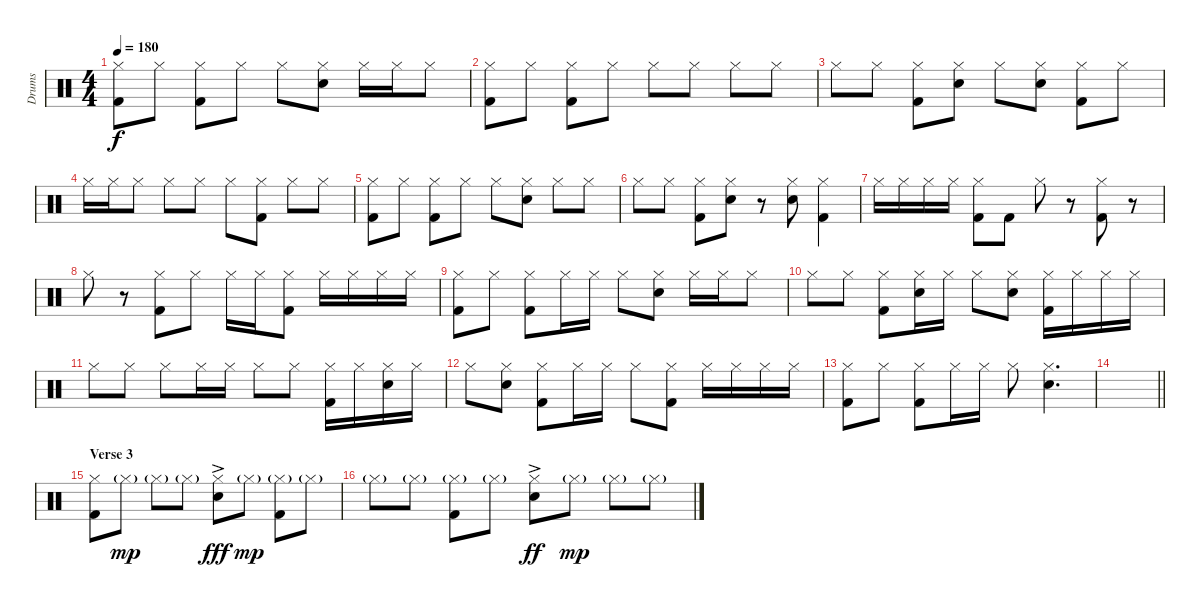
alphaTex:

\track ("Drums" "Drums") {instrument percussion}
\staff {score}
\articulation defaults
\ts (4 4)
\tempo 180
\clef neutral
\ks c
("Hi-Hat (closed)" "Kick (hit) 2").8{dy f} "Hi-Hat (closed)".8 ("Hi-Hat (closed)" "Kick (hit) 2").8 "Hi-Hat (closed)".8 "Hi-Hat (closed)".8 ("Hi-Hat (closed)" "Snare (hit) 2").8 "Hi-Hat (closed)".16 "Hi-Hat (closed)".16 "Hi-Hat (closed)".8 |
("Hi-Hat (closed)" "Kick (hit) 2").8 "Hi-Hat (closed)".8 ("Hi-Hat (closed)" "Kick (hit) 2").8 "Hi-Hat (closed)".8 "Hi-Hat (closed)".8 "Hi-Hat (closed)".8 "Hi-Hat (closed)".8 "Hi-Hat (closed)".8 |
"Hi-Hat (closed)".8 "Hi-Hat (closed)".8 ("Hi-Hat (closed)" "Kick (hit) 2").8 ("Hi-Hat (closed)" "Snare (hit) 2").8 "Hi-Hat (closed)".8 ("Hi-Hat (closed)" "Snare (hit) 2").8 ("Hi-Hat (closed)" "Kick (hit) 2").8 "Hi-Hat (closed)".8 |
"Hi-Hat (closed)".16 "Hi-Hat (closed)".16 "Hi-Hat (closed)".8 "Hi-Hat (closed)".8 "Hi-Hat (closed)".8 "Hi-Hat (closed)".8 ("Hi-Hat (closed)" "Kick (hit) 2").8 "Hi-Hat (closed)".8 "Hi-Hat (closed)".8 |
("Hi-Hat (closed)" "Kick (hit) 2").8 "Hi-Hat (closed)".8 ("Hi-Hat (closed)" "Kick (hit) 2").8 "Hi-Hat (closed)".8 "Hi-Hat (closed)".8 ("Hi-Hat (closed)" "Snare (hit) 2").8 "Hi-Hat (closed)".8 "Hi-Hat (closed)".8 |
"Hi-Hat (closed)".8 "Hi-Hat (closed)".8 ("Hi-Hat (closed)" "Kick (hit) 2").8 ("Hi-Hat (closed)" "Snare (hit) 2").8 r.8 ("Hi-Hat (closed)" "Snare (hit) 2").8 ("Hi-Hat (closed)" "Kick (hit) 2").4 |
"Hi-Hat (closed)".16 "Hi-Hat (closed)".16 "Hi-Hat (closed)".16 "Hi-Hat (closed)".16 ("Hi-Hat (closed)" "Kick (hit) 2").8 "Kick (hit) 2".8 "Hi-Hat (closed)".8 r.8 ("Hi-Hat (closed)" "Kick (hit) 2").8 r.8 |
"Hi-Hat (closed)".8 r.8 ("Hi-Hat (closed)" "Kick (hit) 2").8 "Hi-Hat (closed)".8 "Hi-Hat (closed)".16 "Hi-Hat (closed)".16 ("Hi-Hat (closed)" "Kick (hit) 2").8 "Hi-Hat (closed)".16 "Hi-Hat (closed)".16 "Hi-Hat (closed)".16 "Hi-Hat (closed)".16 |
("Hi-Hat (closed)" "Kick (hit) 2").8 "Hi-Hat (closed)".8 ("Hi-Hat (closed)" "Kick (hit) 2").8 "Hi-Hat (closed)".16 "Hi-Hat (closed)".16 "Hi-Hat (closed)".8 ("Hi-Hat (closed)" "Snare (hit) 2").8 "Hi-Hat (closed)".16 "Hi-Hat (closed)".16 "Hi-Hat (closed)".8 |
"Hi-Hat (closed)".8 "Hi-Hat (closed)".8 ("Hi-Hat (closed)" "Kick (hit) 2").8 ("Hi-Hat (closed)" "Snare (hit) 2").16 "Hi-Hat (closed)".16 "Hi-Hat (closed)".8 ("Hi-Hat (closed)" "Snare (hit) 2").8 ("Hi-Hat (closed)" "Kick (hit) 2").16 "Hi-Hat (closed)".16 "Hi-Hat (closed)".16 "Hi-Hat (closed)".16 |
"Hi-Hat (closed)".8 "Hi-Hat (closed)".8 "Hi-Hat (closed)".8 "Hi-Hat (closed)".16 "Hi-Hat (closed)".16 "Hi-Hat (closed)".8 "Hi-Hat (closed)".8 ("Hi-Hat (closed)" "Kick (hit) 2").16 "Hi-Hat (closed)".16 ("Hi-Hat (closed)" "Snare (hit) 2").16 "Hi-Hat (closed)".16 |
"Hi-Hat (closed)".8 ("Hi-Hat (closed)" "Snare (hit) 2").8 ("Hi-Hat (closed)" "Kick (hit) 2").8 "Hi-Hat (closed)".16 "Hi-Hat (closed)".16 "Hi-Hat (closed)".8 ("Hi-Hat (closed)" "Kick (hit) 2").8 "Hi-Hat (closed)".16 "Hi-Hat (closed)".16 "Hi-Hat (closed)".16 "Hi-Hat (closed)".16 |
("Hi-Hat (closed)" "Kick (hit) 2").8 "Hi-Hat (closed)".8 ("Hi-Hat (closed)" "Kick (hit) 2").8 "Hi-Hat (closed)".16 "Hi-Hat (closed)".16 "Hi-Hat (closed)".8 ("Hi-Hat (closed)" "Snare (hit) 2").4{d} |
\barLineRight lightlight
|
\section ("" "Verse 3")
("Hi-Hat (closed)" "Kick (hit) 2").8 "Hi-Hat (closed)"{g}.8{dy mp} "Hi-Hat (closed)"{g}.8 "Hi-Hat (closed)"{g}.8 ("Hi-Hat (closed)"{ac} "Snare (hit) 2"{ac}).8{dy fff} "Hi-Hat (closed)"{g}.8{dy mp} ("Hi-Hat (closed)"{g} "Kick (hit) 2").8 "Hi-Hat (closed)"{g}.8 |
"Hi-Hat (closed)"{g}.8 "Hi-Hat (closed)"{g}.8 ("Hi-Hat (closed)"{g} "Kick (hit) 2").8 "Hi-Hat (closed)"{g}.8 ("Hi-Hat (closed)"{ac} "Snare (hit) 2"{ac}).8{dy ff} "Hi-Hat (closed)"{g}.8{dy mp} "Hi-Hat (closed)"{g}.8 "Hi-Hat (closed)"{g}.8
